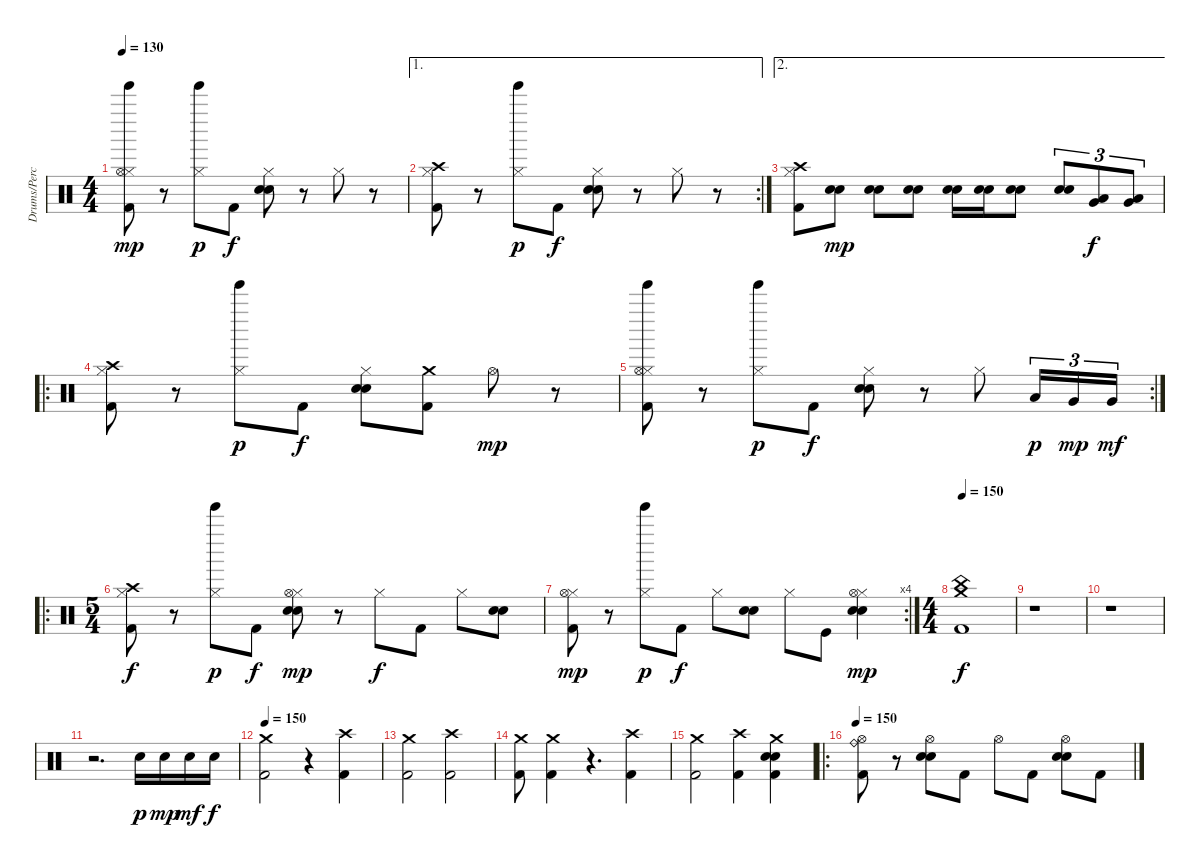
\track ("Drums/Percussion" "Drums/Perc") {instrument percussion}
\staff {score}
\articulation defaults
\ts (4 4)
\tempo 130
\clef neutral
\ks c
("Hi-Hat (closed)" "Hi-Hat (open)" "Tinkle Bell (hit)" "Kick (hit) 2").8{dy mp} r.8 ("Hi-Hat (closed)" "Tinkle Bell (hit)").8{dy p} "Kick (hit) 2".8{dy f} ("Hi-Hat (closed)" "Snare (hit) 2" "Electric Snare (hit)").8 r.8 "Hi-Hat (closed)".8 r.8 |
\ae 1
\rc 2
("Hi-Hat (closed)" "Crash high (hit)" "Kick (hit) 2").8 r.8 ("Hi-Hat (closed)" "Tinkle Bell (hit)").8{dy p} "Kick (hit) 2".8{dy f} ("Hi-Hat (closed)" "Snare (hit) 2" "Electric Snare (hit)").8 r.8 "Hi-Hat (closed)".8 r.8 |
\ae 2
("Hi-Hat (closed)" "Crash high (hit)" "Kick (hit) 2").8 ("Snare (hit) 2" "Electric Snare (hit)").8{dy mp} ("Snare (hit) 2" "Electric Snare (hit)").8 ("Snare (hit) 2" "Electric Snare (hit)").8 ("Snare (hit) 2" "Electric Snare (hit)").16 ("Snare (hit) 2" "Electric Snare (hit)").16 ("Snare (hit) 2" "Electric Snare (hit)").8 ("Snare (hit) 2" "Electric Snare (hit)").8{tu (3 2)} ("Low Tom (hit)" "Very Low Tom (hit)").8{tu (3 2) dy f} ("Very Low Tom (hit)" "Low Floor Tom (hit)").8{tu (3 2)} |
\ro
("Hi-Hat (closed)" "Crash high (hit)" "Kick (hit) 2").8 r.8 ("Hi-Hat (closed)" "Tinkle Bell (hit)").8{dy p} "Kick (hit) 2".8{dy f} ("Hi-Hat (closed)" "Snare (hit) 2" "Electric Snare (hit)").8 ("Crash medium (hit)" "Kick (hit) 2").8 "Hi-Hat (open)".8{dy mp} r.8 |
\rc 2
("Hi-Hat (closed)" "Hi-Hat (open)" "Tinkle Bell (hit)" "Kick (hit) 2").8 r.8 ("Hi-Hat (closed)" "Tinkle Bell (hit)").8{dy p} "Kick (hit) 2".8{dy f} ("Hi-Hat (closed)" "Snare (hit) 2" "Electric Snare (hit)").8 r.8 "Hi-Hat (closed)".8 "Low Tom (hit)".16{tu (3 2) dy p} "Very Low Tom (hit)".16{tu (3 2) dy mp} "Very Low Tom (hit)".16{tu (3 2) dy mf} |
\ro
\ts (5 4)
("Hi-Hat (closed)" "Crash high (hit)" "Kick (hit) 2").8{dy f} r.8 ("Hi-Hat (closed)" "Tinkle Bell (hit)").8{dy p} "Kick (hit) 2".8{dy f} ("Hi-Hat (closed)" "Hi-Hat (open)" "Snare (hit) 2" "Electric Snare (hit)").8{dy mp} r.8 "Hi-Hat (closed)".8{dy f} "Kick (hit) 2".8 "Hi-Hat (closed)".8 ("Snare (hit) 2" "Electric Snare (hit)").8 |
\rc 4
("Hi-Hat (closed)" "Hi-Hat (open)" "Kick (hit) 2").8{dy mp} r.8 ("Hi-Hat (closed)" "Tinkle Bell (hit)").8{dy p} "Kick (hit) 2".8{dy f} "Hi-Hat (closed)".8 ("Snare (hit) 2" "Electric Snare (hit)").8 "Hi-Hat (closed)".8 "Kick (hit)".8 ("Hi-Hat (closed)" "Hi-Hat (open)" "Snare (hit) 2" "Electric Snare (hit)").4{dy mp} |
\ts (4 4)
\tempo 150
("China (hit)" "Crash medium (hit)" "Kick (hit) 2").1{dy f} |
r.1 |
r.1 |
r.2{d} "Snare (hit) 2".16{dy p} "Snare (hit) 2".16{dy mp} "Snare (hit) 2".16{dy mf} "Snare (hit) 2".16{dy f} |
\tempo 150
("Crash medium (hit)" "Kick (hit) 2").2 r.4 ("Crash high (hit)" "Kick (hit) 2").4 |
("Crash medium (hit)" "Kick (hit) 2").2 ("Crash high (hit)" "Kick (hit) 2").2 |
("Crash medium (hit)" "Kick (hit) 2").8 ("Crash medium (hit)" "Kick (hit) 2").4 r.4{d} ("Crash high (hit)" "Kick (hit) 2").4 |
("Crash medium (hit)" "Kick (hit) 2").2 ("Crash high (hit)" "Kick (hit) 2").4 ("Crash medium (hit)" "Snare (hit) 2" "Electric Snare (hit)" "Kick (hit) 2").4 |
\ro
\tempo 150
("Ride (bell)" "Hi-Hat (open)" "Kick (hit) 2").8 r.8 ("Hi-Hat (open)" "Electric Snare (hit)" "Snare (hit) 2").8 "Kick (hit) 2".8 "Hi-Hat (open)".8 "Kick (hit) 2".8 ("Hi-Hat (open)" "Electric Snare (hit)" "Snare (hit) 2").8 "Kick (hit) 2".8
